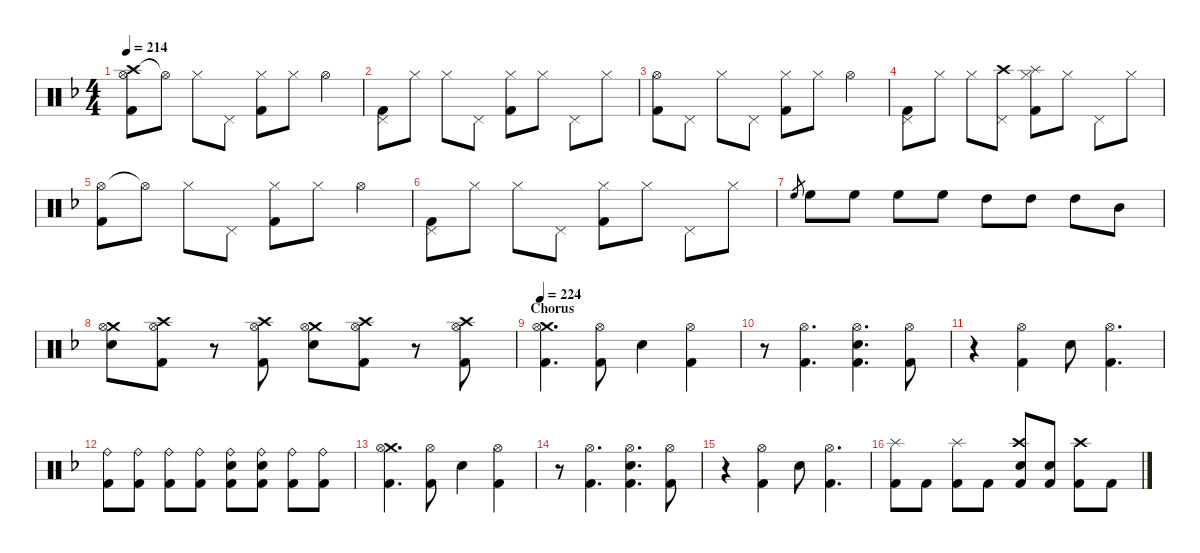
\hideDynamics
\bracketExtendMode nobrackets
\singleTrackTrackNamePolicy hidden
\multiTrackTrackNamePolicy hidden
\firstSystemTrackNameMode fullname
\firstSystemTrackNameOrientation horizontal
\otherSystemsTrackNameOrientation horizontal
\track ("Drumkit" "Drums") {defaultSystemsLayout 4 instrument percussion}
\staff {score}
\articulation defaults
\ts (4 4)
\tempo 214
\clef neutral
\ks dminor
("Crash high (hit)"{acc forcenatural} "Hi-Hat (open)"{acc forcenatural} "Kick (hit) 2"{acc forcenatural}).8{dy mp beam Down} "Hi-Hat (open)"{t acc forcenatural}.8{dy f beam Down} "Hi-Hat (closed)"{acc forcenatural}.8{dy mp beam Down} "Pedal Hi-Hat (hit)"{acc forcenatural}.8{beam Down} ("Hi-Hat (closed)"{acc forcenatural} "Kick (hit) 2"{acc forcenatural}).8{beam Down} "Hi-Hat (closed)"{acc forcenatural}.8{beam Down} "Hi-Hat (open)"{acc forcenatural}.4{dy mf beam Down} |
("Pedal Hi-Hat (hit)"{acc forcenatural} "Kick (hit) 2"{acc forcenatural}).8{beam Down} "Hi-Hat (closed)"{acc forcenatural}.8{dy mp beam Down} "Hi-Hat (closed)"{acc forcenatural}.8{beam Down} "Pedal Hi-Hat (hit)"{acc forcenatural}.8{dy mf beam Down} ("Hi-Hat (closed)"{acc forcenatural} "Kick (hit) 2"{acc forcenatural}).8{dy mp beam Down} "Hi-Hat (closed)"{acc forcenatural}.8{beam Down} "Pedal Hi-Hat (hit)"{acc forcenatural}.8{dy mf beam Down} "Hi-Hat (closed)"{acc forcenatural}.8{dy mp beam Down} |
("Hi-Hat (open)"{acc forcenatural} "Kick (hit) 2"{acc forcenatural}).8{dy mf beam Down} "Pedal Hi-Hat (hit)"{acc forcenatural}.8{beam Down} "Hi-Hat (closed)"{acc forcenatural}.8{dy mp beam Down} "Pedal Hi-Hat (hit)"{acc forcenatural}.8{beam Down} ("Hi-Hat (closed)"{acc forcenatural} "Kick (hit) 2"{acc forcenatural}).8{beam Down} "Hi-Hat (closed)"{acc forcenatural}.8{beam Down} "Hi-Hat (open)"{acc forcenatural}.4{dy mf beam Down} |
("Pedal Hi-Hat (hit)"{acc forcenatural} "Kick (hit) 2"{acc forcenatural}).8{beam Down} "Hi-Hat (closed)"{acc forcenatural}.8{dy mp beam Down} "Hi-Hat (closed)"{acc forcenatural}.8{beam Down} ("Crash high (hit)"{acc forcenatural} "Pedal Hi-Hat (hit)"{acc forcenatural}).8{beam Down} ("Splash (hit)"{acc forcenatural} "Hi-Hat (closed)"{acc forcenatural} "Kick (hit) 2"{acc forcenatural}).8{beam Down} "Hi-Hat (closed)"{acc forcenatural}.8{beam Down} "Pedal Hi-Hat (hit)"{acc forcenatural}.8{dy mf beam Down} "Hi-Hat (closed)"{acc forcenatural}.8{dy mp beam Down} |
("Hi-Hat (open)"{acc forcenatural} "Kick (hit) 2"{acc forcenatural}).8{dy mf beam Down} "Hi-Hat (open)"{t acc forcenatural}.8{dy f beam Down} "Hi-Hat (closed)"{acc forcenatural}.8{dy mp beam Down} "Pedal Hi-Hat (hit)"{acc forcenatural}.8{beam Down} ("Hi-Hat (closed)"{acc forcenatural} "Kick (hit) 2"{acc forcenatural}).8{beam Down} "Hi-Hat (closed)"{acc forcenatural}.8{beam Down} "Hi-Hat (open)"{acc forcenatural}.4{dy mf beam Down} |
("Pedal Hi-Hat (hit)"{acc forcenatural} "Kick (hit) 2"{acc forcenatural}).8{beam Down} "Hi-Hat (closed)"{acc forcenatural}.8{dy mp beam Down} "Hi-Hat (closed)"{acc forcenatural}.8{beam Down} "Pedal Hi-Hat (hit)"{acc forcenatural}.8{dy mf beam Down} ("Hi-Hat (closed)"{acc forcenatural} "Kick (hit) 2"{acc forcenatural}).8{dy mp beam Down} "Hi-Hat (closed)"{acc forcenatural}.8{beam Down} "Pedal Hi-Hat (hit)"{acc forcenatural}.8{dy mf beam Down} "Hi-Hat (closed)"{acc forcenatural}.8{dy mp beam Down} |
"High Floor Tom (hit)"{acc forcenatural}.8{gr beam Up} "High Floor Tom (hit)"{acc forcenatural}.8{dy f beam Down} "High Floor Tom (hit)"{acc forcenatural}.8{beam Down} "High Floor Tom (hit)"{acc forcenatural}.8{beam Down} "High Floor Tom (hit)"{acc forcenatural}.8{beam Down} "High Tom (hit)"{acc forcenatural}.8{beam Down} "High Tom (hit)"{acc forcenatural}.8{beam Down} "High Tom (hit)"{acc forcenatural}.8{beam Down} "Mid Tom (hit)"{acc forcenatural}.8{beam Down} |
("Crash medium (hit)"{acc forcenatural} "Hi-Hat (open)"{acc forcenatural} "Snare (hit) 2"{acc forcenatural}).8{beam Down} ("Crash high (hit)"{acc forcenatural} "Hi-Hat (open)"{acc forcenatural} "Kick (hit) 2"{acc forcenatural}).8{beam Down} r.8{beam Down} ("Crash high (hit)"{acc forcenatural} "Hi-Hat (open)"{acc forcenatural} "Kick (hit) 2"{acc forcenatural}).8{beam Down} ("Crash medium (hit)"{acc forcenatural} "Hi-Hat (open)"{acc forcenatural} "Snare (hit) 2"{acc forcenatural}).8{beam Down} ("Crash high (hit)"{acc forcenatural} "Hi-Hat (open)"{acc forcenatural} "Kick (hit) 2"{acc forcenatural}).8{beam Down} r.8{beam Down} ("Crash high (hit)"{acc forcenatural} "Hi-Hat (open)"{acc forcenatural} "Kick (hit) 2"{acc forcenatural}).8{beam Down} |
\section ("" "Chorus")
\tempo 224
("Crash medium (hit)"{acc forcenatural} "Hi-Hat (open)"{acc forcenatural} "Kick (hit) 2"{acc forcenatural}).4{d beam Down} ("Hi-Hat (open)"{acc forcenatural} "Kick (hit) 2"{acc forcenatural}).8{beam Down} "Snare (hit) 2"{acc forcenatural}.4{beam Down} ("Hi-Hat (open)"{acc forcenatural} "Kick (hit) 2"{acc forcenatural}).4{beam Down} |
r.8{beam Down} ("Hi-Hat (open)"{acc forcenatural} "Kick (hit) 2"{acc forcenatural}).4{d beam Down} ("Hi-Hat (open)"{acc forcenatural} "Snare (hit) 2"{acc forcenatural} "Kick (hit) 2"{acc forcenatural}).4{d beam Down} ("Hi-Hat (open)"{acc forcenatural} "Kick (hit) 2"{acc forcenatural}).8{beam Down} |
r.4{beam Down} ("Hi-Hat (open)"{acc forcenatural} "Kick (hit) 2"{acc forcenatural}).4{beam Down} "Snare (hit) 2"{acc forcenatural}.8{beam Down} ("Hi-Hat (open)"{acc forcenatural} "Kick (hit) 2"{acc forcenatural}).4{d beam Down} |
("Ride (bell)"{acc forcenatural} "Kick (hit) 2"{acc forcenatural}).8{beam Down} ("Ride (bell)"{acc forcenatural} "Kick (hit) 2"{acc forcenatural}).8{beam Down} ("Ride (bell)"{acc forcenatural} "Kick (hit) 2"{acc forcenatural}).8{dy mp beam Down} ("Ride (bell)"{acc forcenatural} "Kick (hit) 2"{acc forcenatural}).8{beam Down} ("Ride (bell)"{acc forcenatural} "Snare (hit) 2"{acc forcenatural} "Kick (hit) 2"{acc forcenatural}).8{dy f beam Down} ("Ride (bell)"{acc forcenatural} "Snare (hit) 2"{acc forcenatural} "Kick (hit) 2"{acc forcenatural}).8{beam Down} ("Ride (bell)"{acc forcenatural} "Kick (hit) 2"{acc forcenatural}).8{dy mp beam Down} ("Ride (bell)"{acc forcenatural} "Kick (hit) 2"{acc forcenatural}).8{beam Down} |
("Crash medium (hit)"{acc forcenatural} "Hi-Hat (open)"{acc forcenatural} "Kick (hit) 2"{acc forcenatural}).4{d dy f beam Down} ("Hi-Hat (open)"{acc forcenatural} "Kick (hit) 2"{acc forcenatural}).8{beam Down} "Snare (hit) 2"{acc forcenatural}.4{beam Down} ("Hi-Hat (open)"{acc forcenatural} "Kick (hit) 2"{acc forcenatural}).4{beam Down} |
r.8{beam Down} ("Hi-Hat (open)"{acc forcenatural} "Kick (hit) 2"{acc forcenatural}).4{d beam Down} ("Hi-Hat (open)"{acc forcenatural} "Snare (hit) 2"{acc forcenatural} "Kick (hit) 2"{acc forcenatural}).4{d beam Down} ("Hi-Hat (open)"{acc forcenatural} "Kick (hit) 2"{acc forcenatural}).8{beam Down} |
r.4{beam Down} ("Hi-Hat (open)"{acc forcenatural} "Kick (hit) 2"{acc forcenatural}).4{beam Down} "Snare (hit) 2"{acc forcenatural}.8{beam Down} ("Hi-Hat (open)"{acc forcenatural} "Kick (hit) 2"{acc forcenatural}).4{d beam Down} |
("Splash (hit)"{acc forcenatural} "Kick (hit) 2"{acc forcenatural}).8{beam Down} "Kick (hit) 2"{acc forcenatural}.8{beam Down} ("Splash (hit)"{acc forcenatural} "Kick (hit) 2"{acc forcenatural}).8{beam Down} "Kick (hit) 2"{acc forcenatural}.8{beam Down} ("Crash high (hit)"{acc forcenatural} "Snare (hit) 2"{acc forcenatural} "Kick (hit) 2"{acc forcenatural}).8{beam Up} ("Snare (hit) 2"{acc forcenatural} "Kick (hit) 2"{acc forcenatural}).8{beam Up} ("Crash high (hit)"{acc forcenatural} "Kick (hit) 2"{acc forcenatural}).8{beam Down} "Kick (hit) 2"{acc forcenatural}.8{beam Down}
